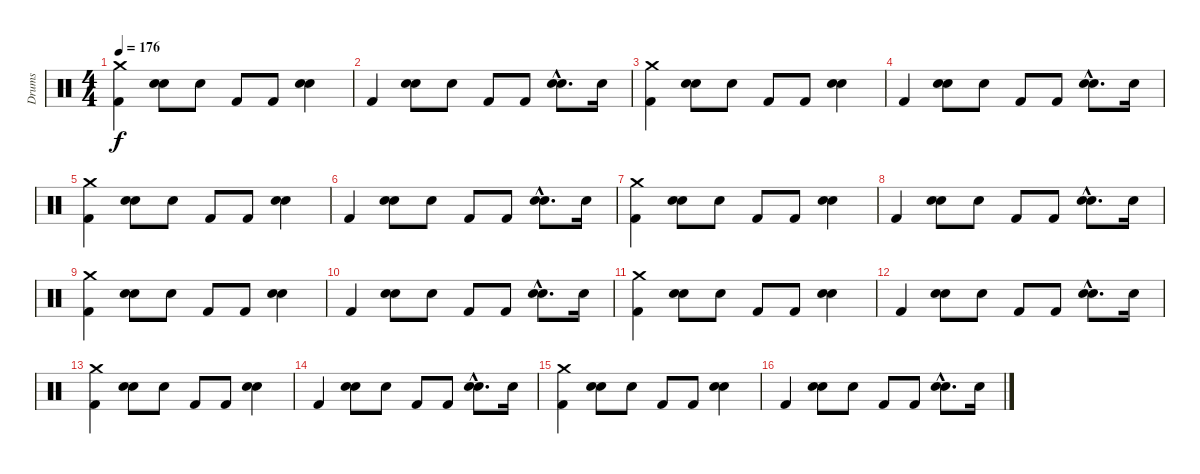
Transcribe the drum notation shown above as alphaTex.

\track ("Drums" "Drums") {instrument percussion}
\staff {score}
\articulation defaults
\ts (4 4)
\tempo 176
\clef neutral
\ks c
("Kick (hit) 2" "Crash medium (hit)").4{dy f volume 15} ("Snare (hit) 2" "Hand Clap (hit)").8 "Hand Clap (hit)".8 "Kick (hit) 2".8 "Kick (hit) 2".8 ("Snare (hit) 2" "Hand Clap (hit)").4 |
"Kick (hit) 2".4 ("Snare (hit) 2" "Hand Clap (hit)").8 "Hand Clap (hit)".8 "Kick (hit) 2".8 "Kick (hit) 2".8 ("Snare (hit) 2"{hac} "Hand Clap (hit)"{hac}).8{d} "Snare (hit) 2".16 |
("Kick (hit) 2" "Crash medium (hit)").4{volume 15} ("Snare (hit) 2" "Hand Clap (hit)").8 "Hand Clap (hit)".8 "Kick (hit) 2".8 "Kick (hit) 2".8 ("Snare (hit) 2" "Hand Clap (hit)").4 |
"Kick (hit) 2".4 ("Snare (hit) 2" "Hand Clap (hit)").8 "Hand Clap (hit)".8 "Kick (hit) 2".8 "Kick (hit) 2".8 ("Snare (hit) 2"{hac} "Hand Clap (hit)"{hac}).8{d} "Snare (hit) 2".16 |
("Kick (hit) 2" "Crash medium (hit)").4{volume 15} ("Snare (hit) 2" "Hand Clap (hit)").8 "Hand Clap (hit)".8 "Kick (hit) 2".8 "Kick (hit) 2".8 ("Snare (hit) 2" "Hand Clap (hit)").4 |
"Kick (hit) 2".4 ("Snare (hit) 2" "Hand Clap (hit)").8 "Hand Clap (hit)".8 "Kick (hit) 2".8 "Kick (hit) 2".8 ("Snare (hit) 2"{hac} "Hand Clap (hit)"{hac}).8{d} "Snare (hit) 2".16 |
("Kick (hit) 2" "Crash medium (hit)").4{volume 15} ("Snare (hit) 2" "Hand Clap (hit)").8 "Hand Clap (hit)".8 "Kick (hit) 2".8 "Kick (hit) 2".8 ("Snare (hit) 2" "Hand Clap (hit)").4 |
"Kick (hit) 2".4 ("Snare (hit) 2" "Hand Clap (hit)").8 "Hand Clap (hit)".8 "Kick (hit) 2".8 "Kick (hit) 2".8 ("Snare (hit) 2"{hac} "Hand Clap (hit)"{hac}).8{d} "Snare (hit) 2".16 |
("Kick (hit) 2" "Crash medium (hit)").4{volume 15} ("Snare (hit) 2" "Hand Clap (hit)").8 "Hand Clap (hit)".8 "Kick (hit) 2".8 "Kick (hit) 2".8 ("Snare (hit) 2" "Hand Clap (hit)").4 |
"Kick (hit) 2".4 ("Snare (hit) 2" "Hand Clap (hit)").8 "Hand Clap (hit)".8 "Kick (hit) 2".8 "Kick (hit) 2".8 ("Snare (hit) 2"{hac} "Hand Clap (hit)"{hac}).8{d} "Snare (hit) 2".16 |
("Kick (hit) 2" "Crash medium (hit)").4{volume 15} ("Snare (hit) 2" "Hand Clap (hit)").8 "Hand Clap (hit)".8 "Kick (hit) 2".8 "Kick (hit) 2".8 ("Snare (hit) 2" "Hand Clap (hit)").4 |
"Kick (hit) 2".4 ("Snare (hit) 2" "Hand Clap (hit)").8 "Hand Clap (hit)".8 "Kick (hit) 2".8 "Kick (hit) 2".8 ("Snare (hit) 2"{hac} "Hand Clap (hit)"{hac}).8{d} "Snare (hit) 2".16 |
("Kick (hit) 2" "Crash medium (hit)").4{volume 15} ("Snare (hit) 2" "Hand Clap (hit)").8 "Hand Clap (hit)".8 "Kick (hit) 2".8 "Kick (hit) 2".8 ("Snare (hit) 2" "Hand Clap (hit)").4 |
"Kick (hit) 2".4 ("Snare (hit) 2" "Hand Clap (hit)").8 "Hand Clap (hit)".8 "Kick (hit) 2".8 "Kick (hit) 2".8 ("Snare (hit) 2"{hac} "Hand Clap (hit)"{hac}).8{d} "Snare (hit) 2".16 |
("Kick (hit) 2" "Crash medium (hit)").4{volume 15} ("Snare (hit) 2" "Hand Clap (hit)").8 "Hand Clap (hit)".8 "Kick (hit) 2".8 "Kick (hit) 2".8 ("Snare (hit) 2" "Hand Clap (hit)").4 |
"Kick (hit) 2".4 ("Snare (hit) 2" "Hand Clap (hit)").8 "Hand Clap (hit)".8 "Kick (hit) 2".8 "Kick (hit) 2".8 ("Snare (hit) 2"{hac} "Hand Clap (hit)"{hac}).8{d} "Snare (hit) 2".16
